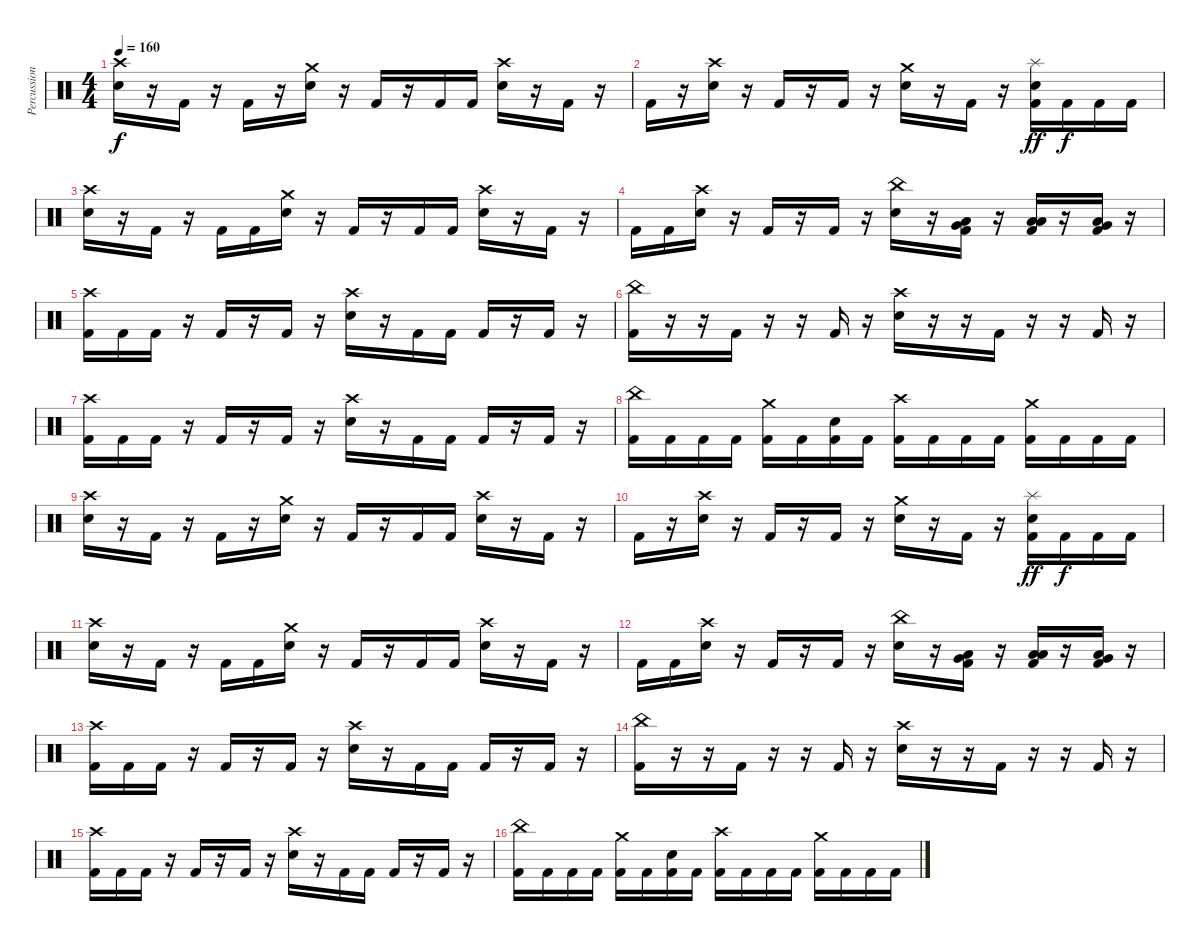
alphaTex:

\track ("Percussion" "Percussion") {instrument percussion}
\staff {score}
\articulation defaults
\ts (4 4)
\tempo 160
\clef neutral
\ks c
("Crash high (hit)" "Snare (hit) 2").16{dy f} r.16 "Kick (hit) 2".16 r.16 "Kick (hit) 2".16 r.16 ("Crash medium (hit)" "Snare (hit) 2").16 r.16 "Kick (hit) 2".16 r.16 "Kick (hit) 2".16 "Kick (hit) 2".16 ("Crash high (hit)" "Snare (hit) 2").16 r.16 "Kick (hit) 2".16 r.16 |
"Kick (hit) 2".16 r.16 ("Crash high (hit)" "Snare (hit) 2").16 r.16 "Kick (hit) 2".16 r.16 "Kick (hit) 2".16 r.16 ("Crash medium (hit)" "Snare (hit) 2").16 r.16 "Kick (hit) 2".16 r.16 ("Splash (hit)" "Snare (hit) 2" "Kick (hit) 2").16{dy ff} "Kick (hit) 2".16{dy f} "Kick (hit) 2".16 "Kick (hit) 2".16 |
("Crash high (hit)" "Snare (hit) 2").16 r.16 "Kick (hit) 2".16 r.16 "Kick (hit) 2".16 "Kick (hit) 2".16 ("Crash medium (hit)" "Snare (hit) 2").16 r.16 "Kick (hit) 2".16 r.16 "Kick (hit) 2".16 "Kick (hit) 2".16 ("Crash high (hit)" "Snare (hit) 2").16 r.16 "Kick (hit) 2".16 r.16 |
"Kick (hit) 2".16 "Kick (hit) 2".16 ("Crash high (hit)" "Snare (hit) 2").16 r.16 "Kick (hit) 2".16 r.16 "Kick (hit) 2".16 r.16 ("China (hit)" "Snare (hit) 2").16 r.16 ("Very Low Tom (hit)" "Low Floor Tom (hit)" "Kick (hit) 2").16 r.16 ("Low Tom (hit)" "Low Floor Tom (hit)" "Kick (hit) 2").16 r.16 ("Very Low Tom (hit)" "Low Floor Tom (hit)" "Kick (hit) 2").16 r.16 |
("Crash high (hit)" "Kick (hit) 2").16 "Kick (hit) 2".16 "Kick (hit) 2".16 r.16 "Kick (hit) 2".16 r.16 "Kick (hit) 2".16 r.16 ("Crash high (hit)" "Snare (hit) 2").16 r.16 "Kick (hit) 2".16 "Kick (hit) 2".16 "Kick (hit) 2".16 r.16 "Kick (hit) 2".16 r.16 |
("China (hit)" "Kick (hit) 2").16 r.16 r.16 "Kick (hit) 2".16 r.16 r.16 "Kick (hit) 2".16 r.16 ("Crash high (hit)" "Snare (hit) 2").16 r.16 r.16 "Kick (hit) 2".16 r.16 r.16 "Kick (hit) 2".16 r.16 |
("Crash high (hit)" "Kick (hit) 2").16 "Kick (hit) 2".16 "Kick (hit) 2".16 r.16 "Kick (hit) 2".16 r.16 "Kick (hit) 2".16 r.16 ("Crash high (hit)" "Snare (hit) 2").16 r.16 "Kick (hit) 2".16 "Kick (hit) 2".16 "Kick (hit) 2".16 r.16 "Kick (hit) 2".16 r.16 |
("China (hit)" "Kick (hit) 2").16 "Kick (hit) 2".16 "Kick (hit) 2".16 "Kick (hit) 2".16 ("Crash medium (hit)" "Kick (hit) 2").16 "Kick (hit) 2".16 ("Snare (hit) 2" "Kick (hit) 2").16 "Kick (hit) 2".16 ("Crash high (hit)" "Kick (hit) 2").16 "Kick (hit) 2".16 "Kick (hit) 2".16 "Kick (hit) 2".16 ("Crash medium (hit)" "Kick (hit) 2").16 "Kick (hit) 2".16 "Kick (hit) 2".16 "Kick (hit) 2".16 |
("Crash high (hit)" "Snare (hit) 2").16 r.16 "Kick (hit) 2".16 r.16 "Kick (hit) 2".16 r.16 ("Crash medium (hit)" "Snare (hit) 2").16 r.16 "Kick (hit) 2".16 r.16 "Kick (hit) 2".16 "Kick (hit) 2".16 ("Crash high (hit)" "Snare (hit) 2").16 r.16 "Kick (hit) 2".16 r.16 |
"Kick (hit) 2".16 r.16 ("Crash high (hit)" "Snare (hit) 2").16 r.16 "Kick (hit) 2".16 r.16 "Kick (hit) 2".16 r.16 ("Crash medium (hit)" "Snare (hit) 2").16 r.16 "Kick (hit) 2".16 r.16 ("Splash (hit)" "Snare (hit) 2" "Kick (hit) 2").16{dy ff} "Kick (hit) 2".16{dy f} "Kick (hit) 2".16 "Kick (hit) 2".16 |
("Crash high (hit)" "Snare (hit) 2").16 r.16 "Kick (hit) 2".16 r.16 "Kick (hit) 2".16 "Kick (hit) 2".16 ("Crash medium (hit)" "Snare (hit) 2").16 r.16 "Kick (hit) 2".16 r.16 "Kick (hit) 2".16 "Kick (hit) 2".16 ("Crash high (hit)" "Snare (hit) 2").16 r.16 "Kick (hit) 2".16 r.16 |
"Kick (hit) 2".16 "Kick (hit) 2".16 ("Crash high (hit)" "Snare (hit) 2").16 r.16 "Kick (hit) 2".16 r.16 "Kick (hit) 2".16 r.16 ("China (hit)" "Snare (hit) 2").16 r.16 ("Very Low Tom (hit)" "Low Floor Tom (hit)" "Kick (hit) 2").16 r.16 ("Low Tom (hit)" "Low Floor Tom (hit)" "Kick (hit) 2").16 r.16 ("Very Low Tom (hit)" "Low Floor Tom (hit)" "Kick (hit) 2").16 r.16 |
("Crash high (hit)" "Kick (hit) 2").16 "Kick (hit) 2".16 "Kick (hit) 2".16 r.16 "Kick (hit) 2".16 r.16 "Kick (hit) 2".16 r.16 ("Crash high (hit)" "Snare (hit) 2").16 r.16 "Kick (hit) 2".16 "Kick (hit) 2".16 "Kick (hit) 2".16 r.16 "Kick (hit) 2".16 r.16 |
("China (hit)" "Kick (hit) 2").16 r.16 r.16 "Kick (hit) 2".16 r.16 r.16 "Kick (hit) 2".16 r.16 ("Crash high (hit)" "Snare (hit) 2").16 r.16 r.16 "Kick (hit) 2".16 r.16 r.16 "Kick (hit) 2".16 r.16 |
("Crash high (hit)" "Kick (hit) 2").16 "Kick (hit) 2".16 "Kick (hit) 2".16 r.16 "Kick (hit) 2".16 r.16 "Kick (hit) 2".16 r.16 ("Crash high (hit)" "Snare (hit) 2").16 r.16 "Kick (hit) 2".16 "Kick (hit) 2".16 "Kick (hit) 2".16 r.16 "Kick (hit) 2".16 r.16 |
("China (hit)" "Kick (hit) 2").16 "Kick (hit) 2".16 "Kick (hit) 2".16 "Kick (hit) 2".16 ("Crash medium (hit)" "Kick (hit) 2").16 "Kick (hit) 2".16 ("Snare (hit) 2" "Kick (hit) 2").16 "Kick (hit) 2".16 ("Crash high (hit)" "Kick (hit) 2").16 "Kick (hit) 2".16 "Kick (hit) 2".16 "Kick (hit) 2".16 ("Crash medium (hit)" "Kick (hit) 2").16 "Kick (hit) 2".16 "Kick (hit) 2".16 "Kick (hit) 2".16
